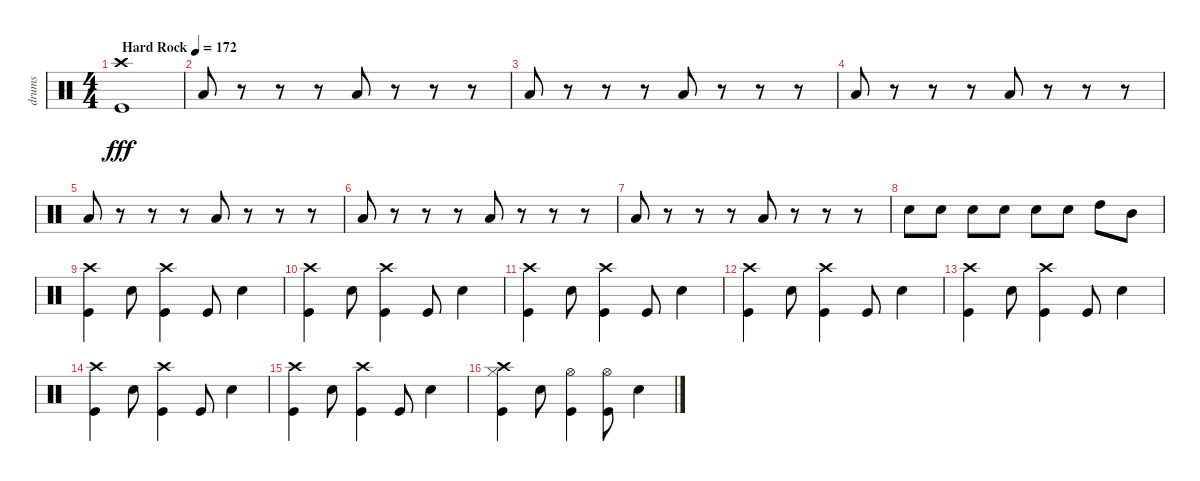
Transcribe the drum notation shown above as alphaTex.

\track ("drums" "drums") {instrument percussion}
\staff {score}
\articulation defaults
\ts (4 4)
\tempo (172 "Hard Rock")
\clef neutral
\ks c
("Crash high (hit)" "Kick (hit)").1{dy fff} |
"Low Floor Tom (hit)".8 r.8 r.8 r.8 "Low Floor Tom (hit)".8 r.8 r.8 r.8 |
"Low Floor Tom (hit)".8 r.8 r.8 r.8 "Low Floor Tom (hit)".8 r.8 r.8 r.8 |
"Low Floor Tom (hit)".8 r.8 r.8 r.8 "Low Floor Tom (hit)".8 r.8 r.8 r.8 |
"Low Floor Tom (hit)".8 r.8 r.8 r.8 "Low Floor Tom (hit)".8 r.8 r.8 r.8 |
"Low Floor Tom (hit)".8 r.8 r.8 r.8 "Low Floor Tom (hit)".8 r.8 r.8 r.8 |
"Low Floor Tom (hit)".8 r.8 r.8 r.8 "Low Floor Tom (hit)".8 r.8 r.8 r.8 |
"Electric Snare (hit)".8 "Electric Snare (hit)".8 "Electric Snare (hit)".8 "Electric Snare (hit)".8 "Electric Snare (hit)".8 "Electric Snare (hit)".8 "High Tom (hit)".8 "Mid Tom (hit)".8 |
("Crash high (hit)" "Kick (hit)").4 "Electric Snare (hit)".8 ("Crash high (hit)" "Kick (hit)").4 "Kick (hit)".8 "Electric Snare (hit)".4 |
("Crash high (hit)" "Kick (hit)").4 "Electric Snare (hit)".8 ("Crash high (hit)" "Kick (hit)").4 "Kick (hit)".8 "Electric Snare (hit)".4 |
("Crash high (hit)" "Kick (hit)").4 "Electric Snare (hit)".8 ("Crash high (hit)" "Kick (hit)").4 "Kick (hit)".8 "Electric Snare (hit)".4 |
("Crash high (hit)" "Kick (hit)").4 "Electric Snare (hit)".8 ("Crash high (hit)" "Kick (hit)").4 "Kick (hit)".8 "Electric Snare (hit)".4 |
("Crash high (hit)" "Kick (hit)").4 "Electric Snare (hit)".8 ("Crash high (hit)" "Kick (hit)").4 "Kick (hit)".8 "Electric Snare (hit)".4 |
("Crash high (hit)" "Kick (hit)").4 "Electric Snare (hit)".8 ("Crash high (hit)" "Kick (hit)").4 "Kick (hit)".8 "Electric Snare (hit)".4 |
("Crash high (hit)" "Kick (hit)").4 "Electric Snare (hit)".8 ("Crash high (hit)" "Kick (hit)").4 "Kick (hit)".8 "Electric Snare (hit)".4 |
("Crash high (hit)" "Hi-Hat (closed)" "Kick (hit)").4 "Electric Snare (hit)".8 ("Hi-Hat (open)" "Kick (hit)").4 ("Hi-Hat (open)" "Kick (hit)").8 "Electric Snare (hit)".4
